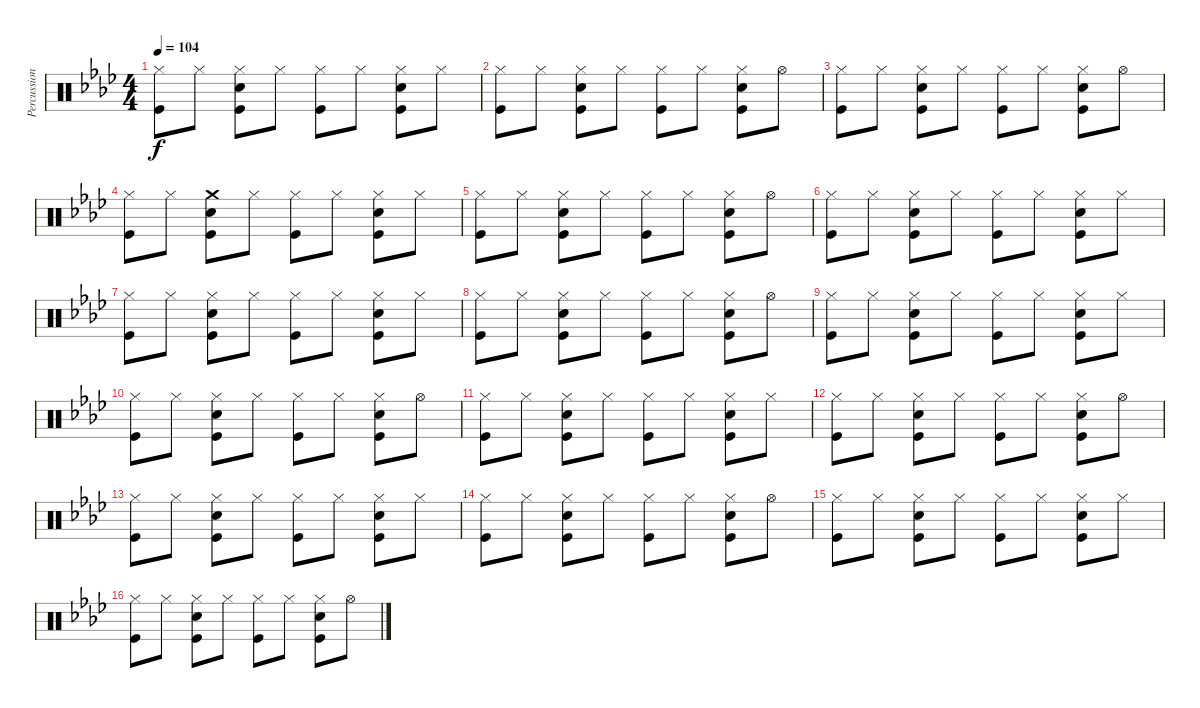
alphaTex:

\track ("Percussion" "Percussion") {instrument percussion}
\staff {score}
\articulation defaults
\ts (4 4)
\tempo 104
\clef neutral
\ks ab
("Hi-Hat (closed)" "Kick (hit)").8{dy f} "Hi-Hat (closed)".8 ("Hi-Hat (closed)" "Snare (hit) 2" "Kick (hit)").8 "Hi-Hat (closed)".8 ("Hi-Hat (closed)" "Kick (hit)").8 "Hi-Hat (closed)".8 ("Hi-Hat (closed)" "Snare (hit) 2" "Kick (hit)").8 "Hi-Hat (closed)".8 |
("Hi-Hat (closed)" "Kick (hit)").8 "Hi-Hat (closed)".8 ("Hi-Hat (closed)" "Snare (hit) 2" "Kick (hit)").8 "Hi-Hat (closed)".8 ("Hi-Hat (closed)" "Kick (hit)").8 "Hi-Hat (closed)".8 ("Hi-Hat (closed)" "Snare (hit) 2" "Kick (hit)").8 "Hi-Hat (open)".8 |
("Hi-Hat (closed)" "Kick (hit)").8 "Hi-Hat (closed)".8 ("Hi-Hat (closed)" "Snare (hit) 2" "Kick (hit)").8 "Hi-Hat (closed)".8 ("Hi-Hat (closed)" "Kick (hit)").8 "Hi-Hat (closed)".8 ("Hi-Hat (closed)" "Snare (hit) 2" "Kick (hit)").8 "Hi-Hat (open)".8 |
("Hi-Hat (closed)" "Kick (hit)").8 "Hi-Hat (closed)".8 ("Crash medium (hit)" "Snare (hit) 2" "Kick (hit)").8 "Hi-Hat (closed)".8 ("Hi-Hat (closed)" "Kick (hit)").8 "Hi-Hat (closed)".8 ("Hi-Hat (closed)" "Snare (hit) 2" "Kick (hit)").8 "Hi-Hat (closed)".8 |
("Hi-Hat (closed)" "Kick (hit)").8 "Hi-Hat (closed)".8 ("Hi-Hat (closed)" "Snare (hit) 2" "Kick (hit)").8 "Hi-Hat (closed)".8 ("Hi-Hat (closed)" "Kick (hit)").8 "Hi-Hat (closed)".8 ("Hi-Hat (closed)" "Snare (hit) 2" "Kick (hit)").8 "Hi-Hat (open)".8 |
("Hi-Hat (closed)" "Kick (hit)").8 "Hi-Hat (closed)".8 ("Hi-Hat (closed)" "Snare (hit) 2" "Kick (hit)").8 "Hi-Hat (closed)".8 ("Hi-Hat (closed)" "Kick (hit)").8 "Hi-Hat (closed)".8 ("Hi-Hat (closed)" "Snare (hit) 2" "Kick (hit)").8 "Hi-Hat (closed)".8 |
("Hi-Hat (closed)" "Kick (hit)").8 "Hi-Hat (closed)".8 ("Hi-Hat (closed)" "Snare (hit) 2" "Kick (hit)").8 "Hi-Hat (closed)".8 ("Hi-Hat (closed)" "Kick (hit)").8 "Hi-Hat (closed)".8 ("Hi-Hat (closed)" "Snare (hit) 2" "Kick (hit)").8 "Hi-Hat (closed)".8 |
("Hi-Hat (closed)" "Kick (hit)").8 "Hi-Hat (closed)".8 ("Hi-Hat (closed)" "Snare (hit) 2" "Kick (hit)").8 "Hi-Hat (closed)".8 ("Hi-Hat (closed)" "Kick (hit)").8 "Hi-Hat (closed)".8 ("Hi-Hat (closed)" "Snare (hit) 2" "Kick (hit)").8 "Hi-Hat (open)".8 |
("Hi-Hat (closed)" "Kick (hit)").8 "Hi-Hat (closed)".8 ("Hi-Hat (closed)" "Snare (hit) 2" "Kick (hit)").8 "Hi-Hat (closed)".8 ("Hi-Hat (closed)" "Kick (hit)").8 "Hi-Hat (closed)".8 ("Hi-Hat (closed)" "Snare (hit) 2" "Kick (hit)").8 "Hi-Hat (closed)".8 |
("Hi-Hat (closed)" "Kick (hit)").8 "Hi-Hat (closed)".8 ("Hi-Hat (closed)" "Snare (hit) 2" "Kick (hit)").8 "Hi-Hat (closed)".8 ("Hi-Hat (closed)" "Kick (hit)").8 "Hi-Hat (closed)".8 ("Hi-Hat (closed)" "Snare (hit) 2" "Kick (hit)").8 "Hi-Hat (open)".8 |
("Hi-Hat (closed)" "Kick (hit)").8 "Hi-Hat (closed)".8 ("Hi-Hat (closed)" "Snare (hit) 2" "Kick (hit)").8 "Hi-Hat (closed)".8 ("Hi-Hat (closed)" "Kick (hit)").8 "Hi-Hat (closed)".8 ("Hi-Hat (closed)" "Snare (hit) 2" "Kick (hit)").8 "Hi-Hat (closed)".8 |
("Hi-Hat (closed)" "Kick (hit)").8 "Hi-Hat (closed)".8 ("Hi-Hat (closed)" "Snare (hit) 2" "Kick (hit)").8 "Hi-Hat (closed)".8 ("Hi-Hat (closed)" "Kick (hit)").8 "Hi-Hat (closed)".8 ("Hi-Hat (closed)" "Snare (hit) 2" "Kick (hit)").8 "Hi-Hat (open)".8 |
("Hi-Hat (closed)" "Kick (hit)").8 "Hi-Hat (closed)".8 ("Hi-Hat (closed)" "Snare (hit) 2" "Kick (hit)").8 "Hi-Hat (closed)".8 ("Hi-Hat (closed)" "Kick (hit)").8 "Hi-Hat (closed)".8 ("Hi-Hat (closed)" "Snare (hit) 2" "Kick (hit)").8 "Hi-Hat (closed)".8 |
("Hi-Hat (closed)" "Kick (hit)").8 "Hi-Hat (closed)".8 ("Hi-Hat (closed)" "Snare (hit) 2" "Kick (hit)").8 "Hi-Hat (closed)".8 ("Hi-Hat (closed)" "Kick (hit)").8 "Hi-Hat (closed)".8 ("Hi-Hat (closed)" "Snare (hit) 2" "Kick (hit)").8 "Hi-Hat (open)".8 |
("Hi-Hat (closed)" "Kick (hit)").8 "Hi-Hat (closed)".8 ("Hi-Hat (closed)" "Snare (hit) 2" "Kick (hit)").8 "Hi-Hat (closed)".8 ("Hi-Hat (closed)" "Kick (hit)").8 "Hi-Hat (closed)".8 ("Hi-Hat (closed)" "Snare (hit) 2" "Kick (hit)").8 "Hi-Hat (closed)".8 |
("Hi-Hat (closed)" "Kick (hit)").8 "Hi-Hat (closed)".8 ("Hi-Hat (closed)" "Snare (hit) 2" "Kick (hit)").8 "Hi-Hat (closed)".8 ("Hi-Hat (closed)" "Kick (hit)").8 "Hi-Hat (closed)".8 ("Hi-Hat (closed)" "Snare (hit) 2" "Kick (hit)").8 "Hi-Hat (open)".8
